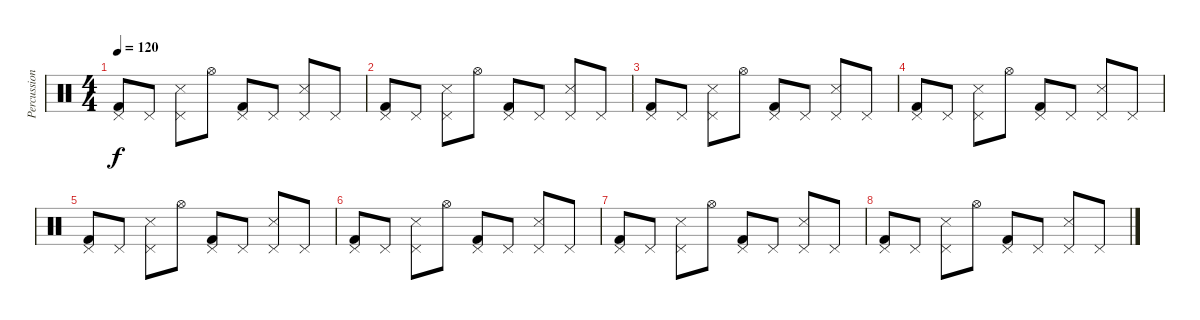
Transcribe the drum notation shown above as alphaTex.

\track ("Percussion" "Percussion") {instrument percussion}
\staff {score}
\articulation defaults
\ts (4 4)
\tempo 120
\clef neutral
\ks c
("Kick (hit) 2" "Pedal Hi-Hat (hit)").8{dy f} "Pedal Hi-Hat (hit)".8 ("Snare (side stick) 3" "Pedal Hi-Hat (hit)").8 "Hi-Hat (open)".8 ("Kick (hit) 2" "Pedal Hi-Hat (hit)").8 "Pedal Hi-Hat (hit)".8 ("Snare (side stick) 3" "Pedal Hi-Hat (hit)").8 "Pedal Hi-Hat (hit)".8 |
("Kick (hit) 2" "Pedal Hi-Hat (hit)").8 "Pedal Hi-Hat (hit)".8 ("Snare (side stick) 3" "Pedal Hi-Hat (hit)").8 "Hi-Hat (open)".8 ("Kick (hit) 2" "Pedal Hi-Hat (hit)").8 "Pedal Hi-Hat (hit)".8 ("Snare (side stick) 3" "Pedal Hi-Hat (hit)").8 "Pedal Hi-Hat (hit)".8 |
("Kick (hit) 2" "Pedal Hi-Hat (hit)").8 "Pedal Hi-Hat (hit)".8 ("Snare (side stick) 3" "Pedal Hi-Hat (hit)").8 "Hi-Hat (open)".8 ("Kick (hit) 2" "Pedal Hi-Hat (hit)").8 "Pedal Hi-Hat (hit)".8 ("Snare (side stick) 3" "Pedal Hi-Hat (hit)").8 "Pedal Hi-Hat (hit)".8 |
("Kick (hit) 2" "Pedal Hi-Hat (hit)").8 "Pedal Hi-Hat (hit)".8 ("Snare (side stick) 3" "Pedal Hi-Hat (hit)").8 "Hi-Hat (open)".8 ("Kick (hit) 2" "Pedal Hi-Hat (hit)").8 "Pedal Hi-Hat (hit)".8 ("Snare (side stick) 3" "Pedal Hi-Hat (hit)").8 "Pedal Hi-Hat (hit)".8 |
("Kick (hit) 2" "Pedal Hi-Hat (hit)").8 "Pedal Hi-Hat (hit)".8 ("Snare (side stick) 3" "Pedal Hi-Hat (hit)").8 "Hi-Hat (open)".8 ("Kick (hit) 2" "Pedal Hi-Hat (hit)").8 "Pedal Hi-Hat (hit)".8 ("Snare (side stick) 3" "Pedal Hi-Hat (hit)").8 "Pedal Hi-Hat (hit)".8 |
("Kick (hit) 2" "Pedal Hi-Hat (hit)").8 "Pedal Hi-Hat (hit)".8 ("Snare (side stick) 3" "Pedal Hi-Hat (hit)").8 "Hi-Hat (open)".8 ("Kick (hit) 2" "Pedal Hi-Hat (hit)").8 "Pedal Hi-Hat (hit)".8 ("Snare (side stick) 3" "Pedal Hi-Hat (hit)").8 "Pedal Hi-Hat (hit)".8 |
("Kick (hit) 2" "Pedal Hi-Hat (hit)").8 "Pedal Hi-Hat (hit)".8 ("Snare (side stick) 3" "Pedal Hi-Hat (hit)").8 "Hi-Hat (open)".8 ("Kick (hit) 2" "Pedal Hi-Hat (hit)").8 "Pedal Hi-Hat (hit)".8 ("Snare (side stick) 3" "Pedal Hi-Hat (hit)").8 "Pedal Hi-Hat (hit)".8 |
("Kick (hit) 2" "Pedal Hi-Hat (hit)").8 "Pedal Hi-Hat (hit)".8 ("Snare (side stick) 3" "Pedal Hi-Hat (hit)").8 "Hi-Hat (open)".8 ("Kick (hit) 2" "Pedal Hi-Hat (hit)").8 "Pedal Hi-Hat (hit)".8 ("Snare (side stick) 3" "Pedal Hi-Hat (hit)").8 "Pedal Hi-Hat (hit)".8
